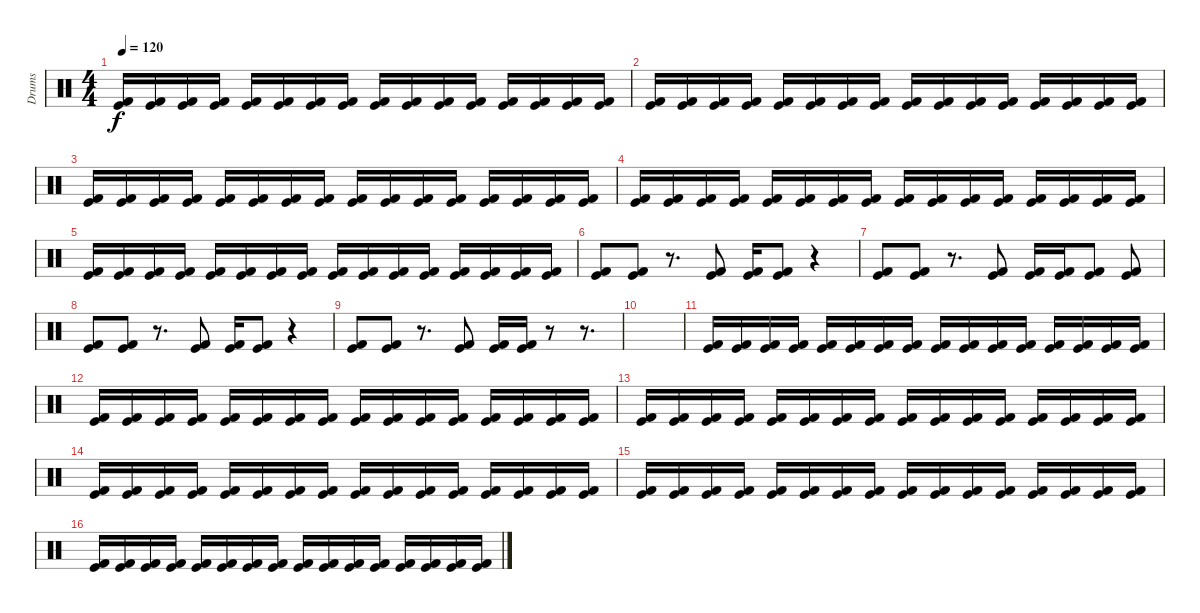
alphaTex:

\track ("Drums" "Drums") {instrument percussion}
\staff {score}
\articulation defaults
\ts (4 4)
\tempo 120
\clef neutral
\ks c
("Kick (hit) 2" "Kick (hit)").16{dy f} ("Kick (hit) 2" "Kick (hit)").16 ("Kick (hit) 2" "Kick (hit)").16 ("Kick (hit) 2" "Kick (hit)").16 ("Kick (hit) 2" "Kick (hit)").16 ("Kick (hit) 2" "Kick (hit)").16 ("Kick (hit) 2" "Kick (hit)").16 ("Kick (hit) 2" "Kick (hit)").16 ("Kick (hit) 2" "Kick (hit)").16 ("Kick (hit) 2" "Kick (hit)").16 ("Kick (hit) 2" "Kick (hit)").16 ("Kick (hit) 2" "Kick (hit)").16 ("Kick (hit) 2" "Kick (hit)").16 ("Kick (hit) 2" "Kick (hit)").16 ("Kick (hit) 2" "Kick (hit)").16 ("Kick (hit) 2" "Kick (hit)").16 |
("Kick (hit) 2" "Kick (hit)").16 ("Kick (hit) 2" "Kick (hit)").16 ("Kick (hit) 2" "Kick (hit)").16 ("Kick (hit) 2" "Kick (hit)").16 ("Kick (hit) 2" "Kick (hit)").16 ("Kick (hit) 2" "Kick (hit)").16 ("Kick (hit) 2" "Kick (hit)").16 ("Kick (hit) 2" "Kick (hit)").16 ("Kick (hit) 2" "Kick (hit)").16 ("Kick (hit) 2" "Kick (hit)").16 ("Kick (hit) 2" "Kick (hit)").16 ("Kick (hit) 2" "Kick (hit)").16 ("Kick (hit) 2" "Kick (hit)").16 ("Kick (hit) 2" "Kick (hit)").16 ("Kick (hit) 2" "Kick (hit)").16 ("Kick (hit) 2" "Kick (hit)").16 |
("Kick (hit) 2" "Kick (hit)").16 ("Kick (hit) 2" "Kick (hit)").16 ("Kick (hit) 2" "Kick (hit)").16 ("Kick (hit) 2" "Kick (hit)").16 ("Kick (hit) 2" "Kick (hit)").16 ("Kick (hit) 2" "Kick (hit)").16 ("Kick (hit) 2" "Kick (hit)").16 ("Kick (hit) 2" "Kick (hit)").16 ("Kick (hit) 2" "Kick (hit)").16 ("Kick (hit) 2" "Kick (hit)").16 ("Kick (hit) 2" "Kick (hit)").16 ("Kick (hit) 2" "Kick (hit)").16 ("Kick (hit) 2" "Kick (hit)").16 ("Kick (hit) 2" "Kick (hit)").16 ("Kick (hit) 2" "Kick (hit)").16 ("Kick (hit) 2" "Kick (hit)").16 |
("Kick (hit) 2" "Kick (hit)").16 ("Kick (hit) 2" "Kick (hit)").16 ("Kick (hit) 2" "Kick (hit)").16 ("Kick (hit) 2" "Kick (hit)").16 ("Kick (hit) 2" "Kick (hit)").16 ("Kick (hit) 2" "Kick (hit)").16 ("Kick (hit) 2" "Kick (hit)").16 ("Kick (hit) 2" "Kick (hit)").16 ("Kick (hit) 2" "Kick (hit)").16 ("Kick (hit) 2" "Kick (hit)").16 ("Kick (hit) 2" "Kick (hit)").16 ("Kick (hit) 2" "Kick (hit)").16 ("Kick (hit) 2" "Kick (hit)").16 ("Kick (hit) 2" "Kick (hit)").16 ("Kick (hit) 2" "Kick (hit)").16 ("Kick (hit) 2" "Kick (hit)").16 |
("Kick (hit) 2" "Kick (hit)").16 ("Kick (hit) 2" "Kick (hit)").16 ("Kick (hit) 2" "Kick (hit)").16 ("Kick (hit) 2" "Kick (hit)").16 ("Kick (hit) 2" "Kick (hit)").16 ("Kick (hit) 2" "Kick (hit)").16 ("Kick (hit) 2" "Kick (hit)").16 ("Kick (hit) 2" "Kick (hit)").16 ("Kick (hit) 2" "Kick (hit)").16 ("Kick (hit) 2" "Kick (hit)").16 ("Kick (hit) 2" "Kick (hit)").16 ("Kick (hit) 2" "Kick (hit)").16 ("Kick (hit) 2" "Kick (hit)").16 ("Kick (hit) 2" "Kick (hit)").16 ("Kick (hit) 2" "Kick (hit)").16 ("Kick (hit) 2" "Kick (hit)").16 |
("Kick (hit) 2" "Kick (hit)").8 ("Kick (hit) 2" "Kick (hit)").8 r.8{d} ("Kick (hit) 2" "Kick (hit)").8 ("Kick (hit) 2" "Kick (hit)").16 ("Kick (hit) 2" "Kick (hit)").8 r.4 |
("Kick (hit) 2" "Kick (hit)").8 ("Kick (hit) 2" "Kick (hit)").8 r.8{d} ("Kick (hit) 2" "Kick (hit)").8 ("Kick (hit) 2" "Kick (hit)").16 ("Kick (hit) 2" "Kick (hit)").16 ("Kick (hit) 2" "Kick (hit)").8 ("Kick (hit) 2" "Kick (hit)").8 |
("Kick (hit) 2" "Kick (hit)").8 ("Kick (hit) 2" "Kick (hit)").8 r.8{d} ("Kick (hit) 2" "Kick (hit)").8 ("Kick (hit) 2" "Kick (hit)").16 ("Kick (hit) 2" "Kick (hit)").8 r.4 |
("Kick (hit) 2" "Kick (hit)").8 ("Kick (hit) 2" "Kick (hit)").8 r.8{d} ("Kick (hit) 2" "Kick (hit)").8 ("Kick (hit) 2" "Kick (hit)").16 ("Kick (hit) 2" "Kick (hit)").16 r.8 r.8{d} |
|
("Kick (hit) 2" "Kick (hit)").16 ("Kick (hit) 2" "Kick (hit)").16 ("Kick (hit) 2" "Kick (hit)").16 ("Kick (hit) 2" "Kick (hit)").16 ("Kick (hit) 2" "Kick (hit)").16 ("Kick (hit) 2" "Kick (hit)").16 ("Kick (hit) 2" "Kick (hit)").16 ("Kick (hit) 2" "Kick (hit)").16 ("Kick (hit) 2" "Kick (hit)").16 ("Kick (hit) 2" "Kick (hit)").16 ("Kick (hit) 2" "Kick (hit)").16 ("Kick (hit) 2" "Kick (hit)").16 ("Kick (hit) 2" "Kick (hit)").16 ("Kick (hit) 2" "Kick (hit)").16 ("Kick (hit) 2" "Kick (hit)").16 ("Kick (hit) 2" "Kick (hit)").16 |
("Kick (hit) 2" "Kick (hit)").16 ("Kick (hit) 2" "Kick (hit)").16 ("Kick (hit) 2" "Kick (hit)").16 ("Kick (hit) 2" "Kick (hit)").16 ("Kick (hit) 2" "Kick (hit)").16 ("Kick (hit) 2" "Kick (hit)").16 ("Kick (hit) 2" "Kick (hit)").16 ("Kick (hit) 2" "Kick (hit)").16 ("Kick (hit) 2" "Kick (hit)").16 ("Kick (hit) 2" "Kick (hit)").16 ("Kick (hit) 2" "Kick (hit)").16 ("Kick (hit) 2" "Kick (hit)").16 ("Kick (hit) 2" "Kick (hit)").16 ("Kick (hit) 2" "Kick (hit)").16 ("Kick (hit) 2" "Kick (hit)").16 ("Kick (hit) 2" "Kick (hit)").16 |
("Kick (hit) 2" "Kick (hit)").16 ("Kick (hit) 2" "Kick (hit)").16 ("Kick (hit) 2" "Kick (hit)").16 ("Kick (hit) 2" "Kick (hit)").16 ("Kick (hit) 2" "Kick (hit)").16 ("Kick (hit) 2" "Kick (hit)").16 ("Kick (hit) 2" "Kick (hit)").16 ("Kick (hit) 2" "Kick (hit)").16 ("Kick (hit) 2" "Kick (hit)").16 ("Kick (hit) 2" "Kick (hit)").16 ("Kick (hit) 2" "Kick (hit)").16 ("Kick (hit) 2" "Kick (hit)").16 ("Kick (hit) 2" "Kick (hit)").16 ("Kick (hit) 2" "Kick (hit)").16 ("Kick (hit) 2" "Kick (hit)").16 ("Kick (hit) 2" "Kick (hit)").16 |
("Kick (hit) 2" "Kick (hit)").16 ("Kick (hit) 2" "Kick (hit)").16 ("Kick (hit) 2" "Kick (hit)").16 ("Kick (hit) 2" "Kick (hit)").16 ("Kick (hit) 2" "Kick (hit)").16 ("Kick (hit) 2" "Kick (hit)").16 ("Kick (hit) 2" "Kick (hit)").16 ("Kick (hit) 2" "Kick (hit)").16 ("Kick (hit) 2" "Kick (hit)").16 ("Kick (hit) 2" "Kick (hit)").16 ("Kick (hit) 2" "Kick (hit)").16 ("Kick (hit) 2" "Kick (hit)").16 ("Kick (hit) 2" "Kick (hit)").16 ("Kick (hit) 2" "Kick (hit)").16 ("Kick (hit) 2" "Kick (hit)").16 ("Kick (hit) 2" "Kick (hit)").16 |
("Kick (hit) 2" "Kick (hit)").16 ("Kick (hit) 2" "Kick (hit)").16 ("Kick (hit) 2" "Kick (hit)").16 ("Kick (hit) 2" "Kick (hit)").16 ("Kick (hit) 2" "Kick (hit)").16 ("Kick (hit) 2" "Kick (hit)").16 ("Kick (hit) 2" "Kick (hit)").16 ("Kick (hit) 2" "Kick (hit)").16 ("Kick (hit) 2" "Kick (hit)").16 ("Kick (hit) 2" "Kick (hit)").16 ("Kick (hit) 2" "Kick (hit)").16 ("Kick (hit) 2" "Kick (hit)").16 ("Kick (hit) 2" "Kick (hit)").16 ("Kick (hit) 2" "Kick (hit)").16 ("Kick (hit) 2" "Kick (hit)").16 ("Kick (hit) 2" "Kick (hit)").16 |
("Kick (hit) 2" "Kick (hit)").16 ("Kick (hit) 2" "Kick (hit)").16 ("Kick (hit) 2" "Kick (hit)").16 ("Kick (hit) 2" "Kick (hit)").16 ("Kick (hit) 2" "Kick (hit)").16 ("Kick (hit) 2" "Kick (hit)").16 ("Kick (hit) 2" "Kick (hit)").16 ("Kick (hit) 2" "Kick (hit)").16 ("Kick (hit) 2" "Kick (hit)").16 ("Kick (hit) 2" "Kick (hit)").16 ("Kick (hit) 2" "Kick (hit)").16 ("Kick (hit) 2" "Kick (hit)").16 ("Kick (hit) 2" "Kick (hit)").16 ("Kick (hit) 2" "Kick (hit)").16 ("Kick (hit) 2" "Kick (hit)").16 ("Kick (hit) 2" "Kick (hit)").16
